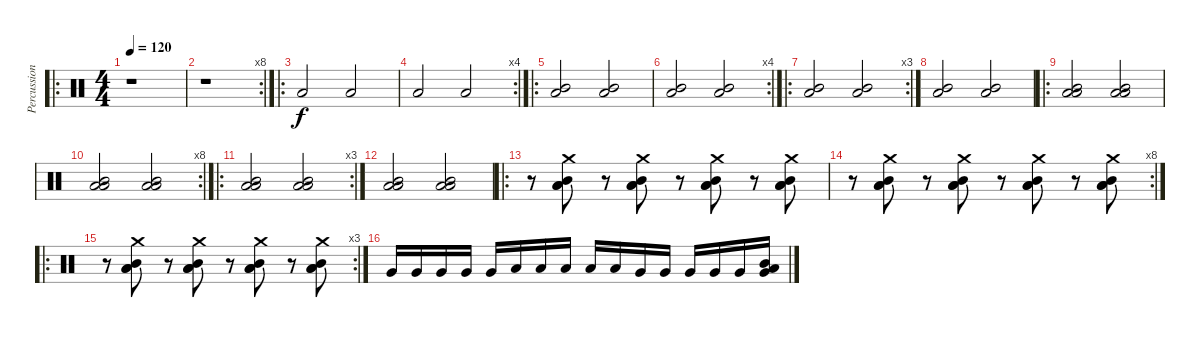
\track ("Percussions" "Percussion") {instrument percussion}
\staff {score}
\articulation defaults
\ro
\ts (4 4)
\tempo 120
\clef neutral
\ks c
r.1{dy f} |
\rc 8
r.1 |
\ro "Low Floor Tom (hit)".2 "Low Floor Tom (hit)".2
|
\rc 4 "Low Floor Tom (hit)".2 "Low Floor Tom (hit)".2
|
\ro
("Low Floor Tom (hit)" "Mid Tom (hit)").2 ("Low Floor Tom (hit)" "Mid Tom (hit)").2 |
\rc 4
("Low Floor Tom (hit)" "Mid Tom (hit)").2 ("Low Floor Tom (hit)" "Mid Tom (hit)").2 |
\ro
\rc 3
("Low Floor Tom (hit)" "Mid Tom (hit)").2 ("Low Floor Tom (hit)" "Mid Tom (hit)").2 |
("Low Floor Tom (hit)" "Mid Tom (hit)").2 ("Low Floor Tom (hit)" "Mid Tom (hit)").2 |
\ro
("Low Floor Tom (hit)" "Mid Tom (hit)" "Low Tom (hit)").2 ("Low Floor Tom (hit)" "Mid Tom (hit)" "Low Tom (hit)").2 |
\rc 8
("Low Floor Tom (hit)" "Mid Tom (hit)" "Low Tom (hit)").2 ("Low Floor Tom (hit)" "Mid Tom (hit)" "Low Tom (hit)").2 |
\ro
\rc 3
("Low Floor Tom (hit)" "Mid Tom (hit)" "Low Tom (hit)").2 ("Low Floor Tom (hit)" "Mid Tom (hit)" "Low Tom (hit)").2 |
("Low Floor Tom (hit)" "Mid Tom (hit)" "Low Tom (hit)").2 ("Low Floor Tom (hit)" "Mid Tom (hit)" "Low Tom (hit)").2 |
\ro
r.8 ("Low Floor Tom (hit)" "Mid Tom (hit)" "Crash medium (hit)" "Low Tom (hit)").8 r.8 ("Low Floor Tom (hit)" "Mid Tom (hit)" "Crash medium (hit)" "Low Tom (hit)").8 r.8 ("Low Floor Tom (hit)" "Mid Tom (hit)" "Crash medium (hit)" "Low Tom (hit)").8 r.8 ("Low Floor Tom (hit)" "Mid Tom (hit)" "Crash medium (hit)" "Low Tom (hit)").8 |
\rc 8
r.8 ("Low Floor Tom (hit)" "Mid Tom (hit)" "Crash medium (hit)" "Low Tom (hit)").8 r.8 ("Low Floor Tom (hit)" "Mid Tom (hit)" "Crash medium (hit)" "Low Tom (hit)").8 r.8 ("Low Floor Tom (hit)" "Mid Tom (hit)" "Crash medium (hit)" "Low Tom (hit)").8 r.8 ("Low Floor Tom (hit)" "Mid Tom (hit)" "Crash medium (hit)" "Low Tom (hit)").8 |
\ro
\rc 3
r.8 ("Low Floor Tom (hit)" "Mid Tom (hit)" "Crash medium (hit)" "Low Tom (hit)").8 r.8 ("Low Floor Tom (hit)" "Mid Tom (hit)" "Crash medium (hit)" "Low Tom (hit)").8 r.8 ("Low Floor Tom (hit)" "Mid Tom (hit)" "Crash medium (hit)" "Low Tom (hit)").8 r.8 ("Low Floor Tom (hit)" "Mid Tom (hit)" "Crash medium (hit)" "Low Tom (hit)").8 |
"Very Low Tom (hit)".16 "Very Low Tom (hit)".16 "Very Low Tom (hit)".16 "Very Low Tom (hit)".16 "Very Low Tom (hit)".16 "Low Tom (hit)".16 "Low Tom (hit)".16 "Low Tom (hit)".16 "Low Tom (hit)".16 "Low Tom (hit)".16 "Very Low Tom (hit)".16 "Very Low Tom (hit)".16 "Very Low Tom (hit)".16 "Very Low Tom (hit)".16 "Very Low Tom (hit)".16 ("Low Floor Tom (hit)" "Very Low Tom (hit)" "Mid Tom (hit)").16
